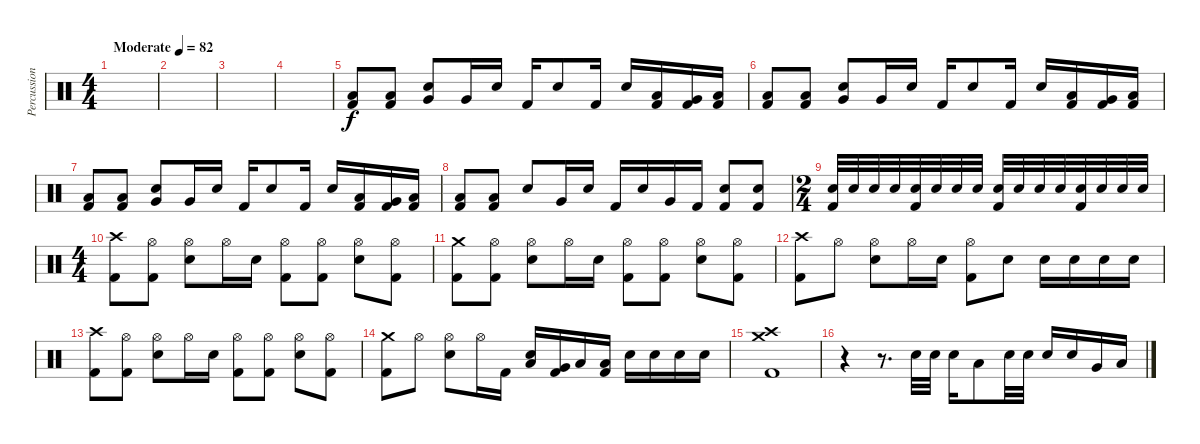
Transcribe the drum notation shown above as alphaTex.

\track ("Percussion" "Percussion") {instrument percussion}
\staff {score}
\articulation defaults
\ts (4 4)
\tempo (82 "Moderate")
\clef neutral
\ks c
|
|
|
|
("Low Floor Tom (hit)" "Kick (hit) 2").8 ("Low Floor Tom (hit)" "Kick (hit) 2").8 ("Very Low Tom (hit)" "Snare (hit) 2").8 "Very Low Tom (hit)".16 "Snare (hit) 2".16 "Kick (hit) 2".16 "Snare (hit) 2".8 "Kick (hit) 2".16 "Snare (hit) 2".16 ("Low Tom (hit)" "Kick (hit) 2").16 ("Very Low Tom (hit)" "Kick (hit) 2").16 ("Low Floor Tom (hit)" "Kick (hit) 2").16 |
("Low Floor Tom (hit)" "Kick (hit) 2").8 ("Low Floor Tom (hit)" "Kick (hit) 2").8 ("Very Low Tom (hit)" "Snare (hit) 2").8 "Very Low Tom (hit)".16 "Snare (hit) 2".16 "Kick (hit) 2".16 "Snare (hit) 2".8 "Kick (hit) 2".16 "Snare (hit) 2".16 ("Low Tom (hit)" "Kick (hit) 2").16 ("Very Low Tom (hit)" "Kick (hit) 2").16 ("Low Floor Tom (hit)" "Kick (hit) 2").16 |
("Low Floor Tom (hit)" "Kick (hit) 2").8 ("Low Floor Tom (hit)" "Kick (hit) 2").8 ("Very Low Tom (hit)" "Snare (hit) 2").8 "Very Low Tom (hit)".16 "Snare (hit) 2".16 "Kick (hit) 2".16 "Snare (hit) 2".8 "Kick (hit) 2".16 "Snare (hit) 2".16 ("Low Tom (hit)" "Kick (hit) 2").16 ("Very Low Tom (hit)" "Kick (hit) 2").16 ("Low Floor Tom (hit)" "Kick (hit) 2").16 |
("Low Floor Tom (hit)" "Kick (hit) 2").8 ("Low Floor Tom (hit)" "Kick (hit) 2").8 "Snare (hit) 2".8 "Very Low Tom (hit)".16 "Snare (hit) 2".16 "Kick (hit) 2".16 "Snare (hit) 2".16 "Very Low Tom (hit)".16 "Kick (hit) 2".16 ("Snare (hit) 2" "Kick (hit) 2").8 ("Snare (hit) 2" "Kick (hit) 2").8 |
\ts (2 4)
("Snare (hit) 2" "Kick (hit) 2").32 "Snare (hit) 2".32 "Snare (hit) 2".32 "Snare (hit) 2".32 ("Snare (hit) 2" "Kick (hit) 2").32 "Snare (hit) 2".32 "Snare (hit) 2".32 "Snare (hit) 2".32 ("Snare (hit) 2" "Kick (hit) 2").32 "Snare (hit) 2".32 "Snare (hit) 2".32 "Snare (hit) 2".32 ("Snare (hit) 2" "Kick (hit) 2").32 "Snare (hit) 2".32 "Snare (hit) 2".32 "Snare (hit) 2".32 |
\ts (4 4)
("Crash high (hit)" "Kick (hit) 2").8 ("Hi-Hat (open)" "Kick (hit) 2").8 ("Hi-Hat (open)" "Snare (hit) 2").8 "Hi-Hat (open)".16 "Snare (hit) 2".16 ("Hi-Hat (open)" "Kick (hit) 2").8 ("Hi-Hat (open)" "Kick (hit) 2").8 ("Hi-Hat (open)" "Snare (hit) 2").8 ("Hi-Hat (open)" "Kick (hit) 2").8 |
("Crash medium (hit)" "Kick (hit) 2").8 ("Hi-Hat (open)" "Kick (hit) 2").8 ("Hi-Hat (open)" "Snare (hit) 2").8 "Hi-Hat (open)".16 "Snare (hit) 2".16 ("Hi-Hat (open)" "Kick (hit) 2").8 ("Hi-Hat (open)" "Kick (hit) 2").8 ("Hi-Hat (open)" "Snare (hit) 2").8 ("Hi-Hat (open)" "Kick (hit) 2").8 |
("Crash high (hit)" "Kick (hit) 2").8 "Hi-Hat (open)".8 ("Hi-Hat (open)" "Snare (hit) 2").8 "Hi-Hat (open)".16 "Snare (hit) 2".16 ("Hi-Hat (open)" "Kick (hit) 2").8 "Snare (hit) 2".8 "Snare (hit) 2".16 "Snare (hit) 2".16 "Snare (hit) 2".16 "Snare (hit) 2".16 |
("Crash high (hit)" "Kick (hit) 2").8 ("Hi-Hat (open)" "Kick (hit) 2").8 ("Hi-Hat (open)" "Snare (hit) 2").8 "Hi-Hat (open)".16 "Snare (hit) 2".16 ("Hi-Hat (open)" "Kick (hit) 2").8 ("Hi-Hat (open)" "Kick (hit) 2").8 ("Hi-Hat (open)" "Snare (hit) 2").8 ("Hi-Hat (open)" "Kick (hit) 2").8 |
("Crash medium (hit)" "Kick (hit) 2").8 "Hi-Hat (open)".8 ("Hi-Hat (open)" "Snare (hit) 2").8 "Hi-Hat (open)".16 "Kick (hit) 2".16 ("Low Tom (hit)" "Snare (hit) 2").16 ("Very Low Tom (hit)" "Kick (hit) 2").16 "Low Floor Tom (hit)".16 ("Low Floor Tom (hit)" "Kick (hit) 2").16 "Snare (hit) 2".16 "Snare (hit) 2".16 "Snare (hit) 2".16 "Snare (hit) 2".16 |
("Crash high (hit)" "Crash medium (hit)" "Kick (hit) 2").1 |
r.4 r.8{d} "Snare (hit) 2".32 "Snare (hit) 2".32 "Snare (hit) 2".16 "Low Floor Tom (hit)".8 "Snare (hit) 2".32 "Snare (hit) 2".32 "Snare (hit) 2".16 "Snare (hit) 2".16 "Very Low Tom (hit)".16 "Low Floor Tom (hit)".16
